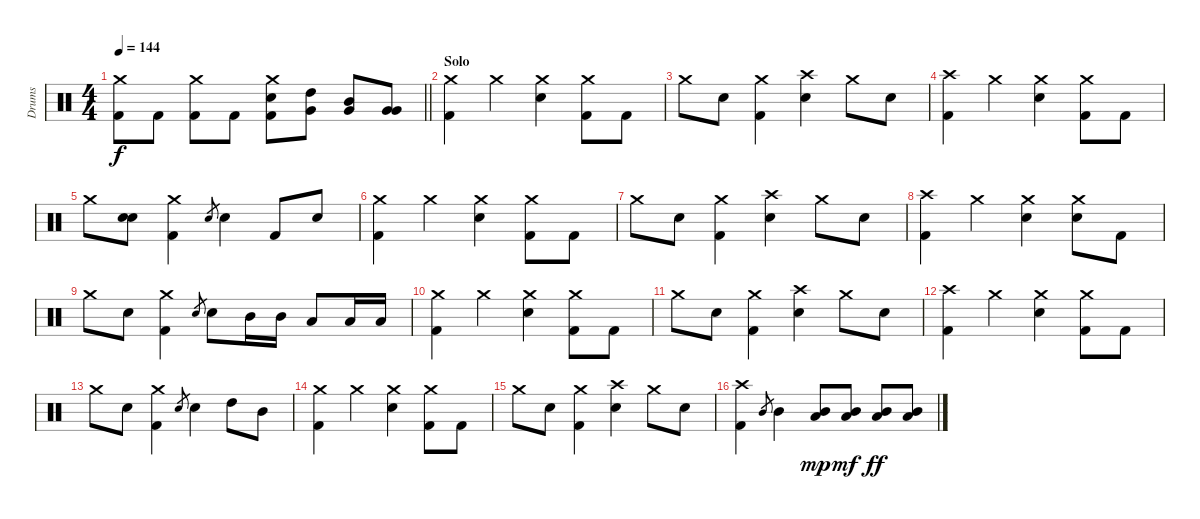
\track ("Drums" "Drums") {instrument percussion}
\staff {score}
\articulation defaults
\ts (4 4)
\tempo 144
\clef neutral
\barLineRight lightlight
\ks c
("Crash medium (hit)" "Kick (hit) 2").8{dy f} "Kick (hit) 2".8 ("Crash medium (hit)" "Kick (hit) 2").8 "Kick (hit) 2".8 ("Crash medium (hit)" "Electric Snare (hit)" "Kick (hit) 2").8 ("High Tom (hit)" "Very Low Tom (hit)").8 ("Mid Tom (hit)" "Very Low Tom (hit)").8 ("Very Low Tom (hit)" "Very Low Tom (hit)").8 |
\section ("" "Solo")
("Crash medium (hit)" "Kick (hit) 2").4 "Crash medium (hit)".4 ("Crash medium (hit)" "Electric Snare (hit)").4 ("Crash medium (hit)" "Kick (hit) 2").8 "Kick (hit) 2".8 |
"Crash medium (hit)".8 "Electric Snare (hit)".8 ("Crash medium (hit)" "Kick (hit) 2").4 ("Crash high (hit)" "Electric Snare (hit)").4 "Crash medium (hit)".8 "Electric Snare (hit)".8 |
("Crash high (hit)" "Kick (hit) 2").4 "Crash medium (hit)".4 ("Crash medium (hit)" "Electric Snare (hit)").4 ("Crash medium (hit)" "Kick (hit) 2").8 "Kick (hit) 2".8 |
"Crash medium (hit)".8 ("Electric Snare (hit)" "Electric Snare (hit)").8 ("Crash medium (hit)" "Kick (hit) 2").4 "Electric Snare (hit)".8{gr} "Electric Snare (hit)".4 "Kick (hit) 2".8 "Electric Snare (hit)".8 |
("Crash medium (hit)" "Kick (hit) 2").4 "Crash medium (hit)".4 ("Crash medium (hit)" "Electric Snare (hit)").4 ("Crash medium (hit)" "Kick (hit) 2").8 "Kick (hit) 2".8 |
"Crash medium (hit)".8 "Electric Snare (hit)".8 ("Crash medium (hit)" "Kick (hit) 2").4 ("Crash high (hit)" "Electric Snare (hit)").4 "Crash medium (hit)".8 "Electric Snare (hit)".8 |
("Crash high (hit)" "Kick (hit) 2").4 "Crash medium (hit)".4 ("Crash medium (hit)" "Electric Snare (hit)").4 ("Crash medium (hit)" "Electric Snare (hit)").8 "Kick (hit) 2".8 |
"Crash medium (hit)".8 "Electric Snare (hit)".8 ("Crash medium (hit)" "Kick (hit) 2").4 "Electric Snare (hit)".8{gr} "Electric Snare (hit)".8 "Mid Tom (hit)".16 "Mid Tom (hit)".16 "Low Tom (hit)".8 "Low Tom (hit)".16 "Low Tom (hit)".16 |
("Crash medium (hit)" "Kick (hit) 2").4 "Crash medium (hit)".4 ("Crash medium (hit)" "Electric Snare (hit)").4 ("Crash medium (hit)" "Kick (hit) 2").8 "Kick (hit) 2".8 |
"Crash medium (hit)".8 "Electric Snare (hit)".8 ("Crash medium (hit)" "Kick (hit) 2").4 ("Crash high (hit)" "Electric Snare (hit)").4 "Crash medium (hit)".8 "Electric Snare (hit)".8 |
("Crash high (hit)" "Kick (hit) 2").4 "Crash medium (hit)".4 ("Crash medium (hit)" "Electric Snare (hit)").4 ("Crash medium (hit)" "Kick (hit) 2").8 "Kick (hit) 2".8 |
"Crash medium (hit)".8 "Electric Snare (hit)".8 ("Crash medium (hit)" "Kick (hit) 2").4 "Electric Snare (hit)".8{gr} "Electric Snare (hit)".4 "High Tom (hit)".8 "Mid Tom (hit)".8 |
("Crash medium (hit)" "Kick (hit) 2").4 "Crash medium (hit)".4 ("Crash medium (hit)" "Electric Snare (hit)").4 ("Crash medium (hit)" "Kick (hit) 2").8 "Kick (hit) 2".8 |
"Crash medium (hit)".8 "Electric Snare (hit)".8 ("Crash medium (hit)" "Kick (hit) 2").4 ("Crash high (hit)" "Electric Snare (hit)").4 "Crash medium (hit)".8 "Electric Snare (hit)".8 |
("Crash high (hit)" "Kick (hit) 2").4 "Mid Tom (hit)"{h}.8{gr} "Mid Tom (hit)".4 ("Low Tom (hit)" "Mid Tom (hit)").8{dy mp} ("Low Tom (hit)" "Mid Tom (hit)").8{dy mf} ("Low Tom (hit)" "Mid Tom (hit)").8{dy ff} ("Low Tom (hit)" "Mid Tom (hit)").8
